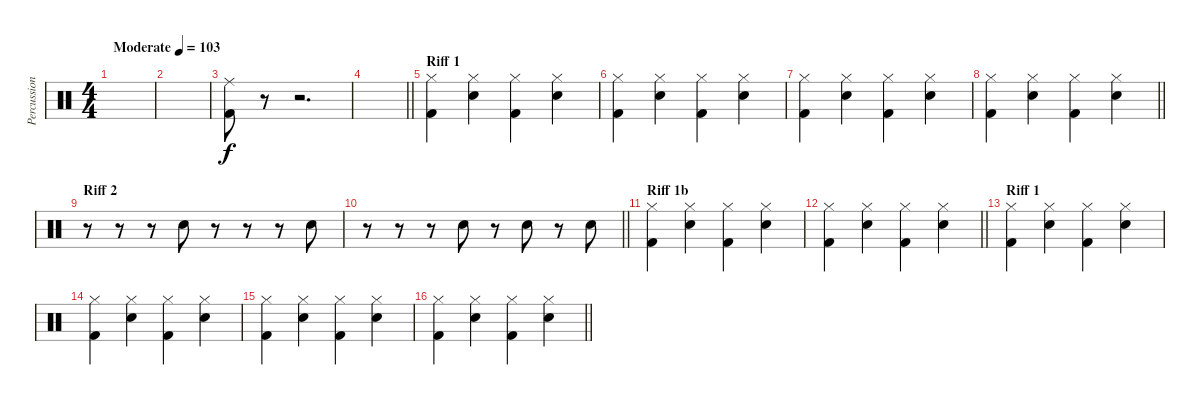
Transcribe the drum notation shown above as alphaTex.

\track ("Percussion" "Percussion") {instrument percussion}
\staff {score}
\articulation defaults
\ts (4 4)
\tempo (103 "Moderate")
\clef neutral
\ks c
|
|
("Ride (middle)" "Kick (hit) 2").8 r.8 r.2{d} |
\barLineRight lightlight
|
\section ("" "Riff 1")
("Hi-Hat (closed)" "Kick (hit) 2").4 ("Hi-Hat (closed)" "Electric Snare (hit)").4 ("Hi-Hat (closed)" "Kick (hit) 2").4 ("Hi-Hat (closed)" "Electric Snare (hit)").4 |
("Hi-Hat (closed)" "Kick (hit) 2").4 ("Hi-Hat (closed)" "Electric Snare (hit)").4 ("Hi-Hat (closed)" "Kick (hit) 2").4 ("Hi-Hat (closed)" "Electric Snare (hit)").4 |
("Hi-Hat (closed)" "Kick (hit) 2").4 ("Hi-Hat (closed)" "Electric Snare (hit)").4 ("Hi-Hat (closed)" "Kick (hit) 2").4 ("Hi-Hat (closed)" "Electric Snare (hit)").4 |
\barLineRight lightlight
("Hi-Hat (closed)" "Kick (hit) 2").4 ("Hi-Hat (closed)" "Electric Snare (hit)").4 ("Hi-Hat (closed)" "Kick (hit) 2").4 ("Hi-Hat (closed)" "Electric Snare (hit)").4 |
\section ("" "Riff 2")
r.8 r.8 r.8 "Electric Snare (hit)".8 r.8 r.8 r.8 "Electric Snare (hit)".8 |
\barLineRight lightlight
r.8 r.8 r.8 "Electric Snare (hit)".8 r.8 "Electric Snare (hit)".8 r.8 "Electric Snare (hit)".8 |
\section ("" "Riff 1b")
("Hi-Hat (closed)" "Kick (hit) 2").4 ("Hi-Hat (closed)" "Electric Snare (hit)").4 ("Hi-Hat (closed)" "Kick (hit) 2").4 ("Hi-Hat (closed)" "Electric Snare (hit)").4 |
\barLineRight lightlight
("Hi-Hat (closed)" "Kick (hit) 2").4 ("Hi-Hat (closed)" "Electric Snare (hit)").4 ("Hi-Hat (closed)" "Kick (hit) 2").4 ("Hi-Hat (closed)" "Electric Snare (hit)").4 |
\section ("" "Riff 1")
("Hi-Hat (closed)" "Kick (hit) 2").4 ("Hi-Hat (closed)" "Electric Snare (hit)").4 ("Hi-Hat (closed)" "Kick (hit) 2").4 ("Hi-Hat (closed)" "Electric Snare (hit)").4 |
("Hi-Hat (closed)" "Kick (hit) 2").4 ("Hi-Hat (closed)" "Electric Snare (hit)").4 ("Hi-Hat (closed)" "Kick (hit) 2").4 ("Hi-Hat (closed)" "Electric Snare (hit)").4 |
("Hi-Hat (closed)" "Kick (hit) 2").4 ("Hi-Hat (closed)" "Electric Snare (hit)").4 ("Hi-Hat (closed)" "Kick (hit) 2").4 ("Hi-Hat (closed)" "Electric Snare (hit)").4 |
\barLineRight lightlight
("Hi-Hat (closed)" "Kick (hit) 2").4 ("Hi-Hat (closed)" "Electric Snare (hit)").4 ("Hi-Hat (closed)" "Kick (hit) 2").4 ("Hi-Hat (closed)" "Electric Snare (hit)").4
